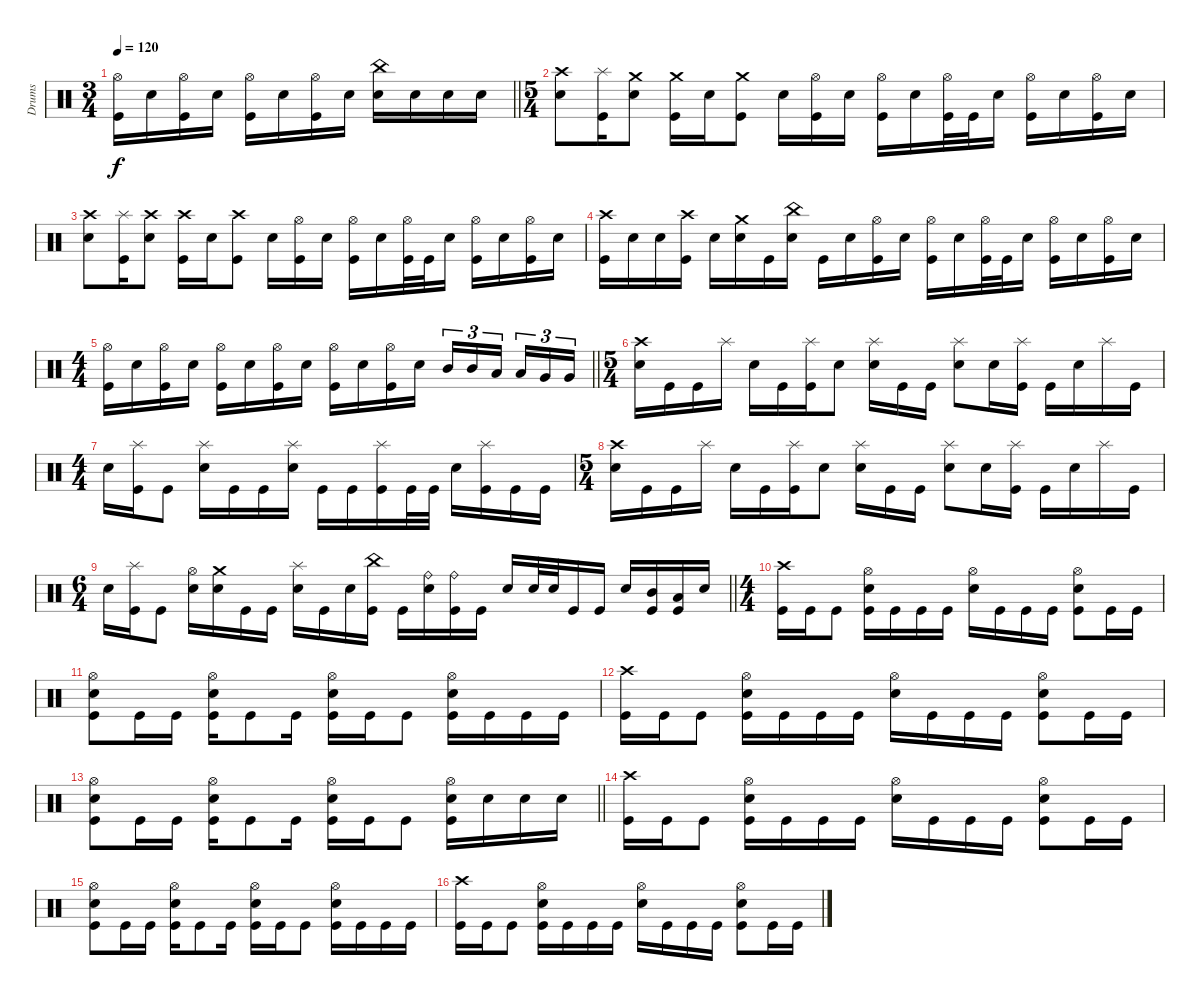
\track ("Drums" "Drums") {instrument percussion}
\staff
\articulation defaults
\ts (3 4)
\tempo 120
\clef neutral
\barLineRight lightlight
\ks c
("Hi-Hat (open)" "Kick (hit)").16{dy f} "Electric Snare (hit)".16 ("Hi-Hat (open)" "Kick (hit)").16 "Electric Snare (hit)".16 ("Hi-Hat (open)" "Kick (hit)").16 "Electric Snare (hit)".16 ("Hi-Hat (open)" "Kick (hit)").16 "Electric Snare (hit)".16 ("China (hit)" "Electric Snare (hit)").16 "Electric Snare (hit)".16 "Electric Snare (hit)".16 "Electric Snare (hit)".16 |
\ts (5 4)
("Crash high (hit)" "Electric Snare (hit)").8 ("Splash (hit)" "Kick (hit)").16 ("Crash medium (hit)" "Electric Snare (hit)").8 ("Crash medium (hit)" "Kick (hit)").16 "Electric Snare (hit)".16 ("Crash medium (hit)" "Kick (hit)").8 "Electric Snare (hit)".16 ("Hi-Hat (open)" "Kick (hit)").16 "Electric Snare (hit)".16 ("Hi-Hat (open)" "Kick (hit)").16 "Electric Snare (hit)".16 ("Hi-Hat (open)" "Kick (hit)").32 "Kick (hit)".32 "Electric Snare (hit)".16 ("Hi-Hat (open)" "Kick (hit)").16 "Electric Snare (hit)".16 ("Hi-Hat (open)" "Kick (hit)").16 "Electric Snare (hit)".16 |
("Crash high (hit)" "Electric Snare (hit)").8 ("Splash (hit)" "Kick (hit)").16 ("Crash high (hit)" "Electric Snare (hit)").8 ("Crash high (hit)" "Kick (hit)").16 "Electric Snare (hit)".16 ("Crash high (hit)" "Kick (hit)").8 "Electric Snare (hit)".16 ("Hi-Hat (open)" "Kick (hit)").16 "Electric Snare (hit)".16 ("Hi-Hat (open)" "Kick (hit)").16 "Electric Snare (hit)".16 ("Hi-Hat (open)" "Kick (hit)").32 "Kick (hit)".32 "Electric Snare (hit)".16 ("Hi-Hat (open)" "Kick (hit)").16 "Electric Snare (hit)".16 ("Hi-Hat (open)" "Kick (hit)").16 "Electric Snare (hit)".16 |
("Crash high (hit)" "Kick (hit)").16 "Electric Snare (hit)".16 "Electric Snare (hit)".16 ("Crash high (hit)" "Kick (hit)").16 "Electric Snare (hit)".16 ("Crash medium (hit)" "Electric Snare (hit)").16 "Kick (hit)".16 ("China (hit)" "Electric Snare (hit)").16 "Kick (hit)".16 "Electric Snare (hit)".16 ("Hi-Hat (open)" "Kick (hit)").16 "Electric Snare (hit)".16 ("Hi-Hat (open)" "Kick (hit)").16 "Electric Snare (hit)".16 ("Hi-Hat (open)" "Kick (hit)").32 "Kick (hit)".32 "Electric Snare (hit)".16 ("Hi-Hat (open)" "Kick (hit)").16 "Electric Snare (hit)".16 ("Hi-Hat (open)" "Kick (hit)").16 "Electric Snare (hit)".16 |
\ts (4 4)
\barLineRight lightlight
("Hi-Hat (open)" "Kick (hit)").16 "Electric Snare (hit)".16 ("Hi-Hat (open)" "Kick (hit)").16 "Electric Snare (hit)".16 ("Hi-Hat (open)" "Kick (hit)").16 "Electric Snare (hit)".16 ("Hi-Hat (open)" "Kick (hit)").16 "Electric Snare (hit)".16 ("Hi-Hat (open)" "Kick (hit)").16 "Electric Snare (hit)".16 ("Hi-Hat (open)" "Kick (hit)").16 "Electric Snare (hit)".16 "Mid Tom (hit)".16{tu (3 2)} "Mid Tom (hit)".16{tu (3 2)} "Low Tom (hit)".16{tu (3 2) beam splitsecondary} "Low Tom (hit)".16{tu (3 2)} "Very Low Tom (hit)".16{tu (3 2)} "Very Low Tom (hit)".16{tu (3 2)} |
\ts (5 4)
\section ("" "")
("Crash high (hit)" "Electric Snare (hit)").16 "Kick (hit)".16 "Kick (hit)".16 "Splash (hit)".16 "Electric Snare (hit)".16 "Kick (hit)".16 ("Splash (hit)" "Kick (hit)").16 "Electric Snare (hit)".8 ("Splash (hit)" "Electric Snare (hit)").16 "Kick (hit)".16 "Kick (hit)".16 ("Splash (hit)" "Electric Snare (hit)").8 "Electric Snare (hit)".16 ("Splash (hit)" "Kick (hit)").16 "Kick (hit)".16 "Electric Snare (hit)".16 "Splash (hit)".16 "Kick (hit)".16 |
\ts (4 4)
"Electric Snare (hit)".16 ("Splash (hit)" "Kick (hit)").16 "Kick (hit)".8 ("Splash (hit)" "Electric Snare (hit)").16 "Kick (hit)".16 "Kick (hit)".16 ("Splash (hit)" "Electric Snare (hit)").16 "Kick (hit)".16 "Kick (hit)".16 ("Splash (hit)" "Kick (hit)").16 "Kick (hit)".32 "Kick (hit)".32 "Electric Snare (hit)".16 ("Splash (hit)" "Kick (hit)").16 "Kick (hit)".16 "Kick (hit)".16 |
\ts (5 4)
("Crash high (hit)" "Electric Snare (hit)").16 "Kick (hit)".16 "Kick (hit)".16 "Splash (hit)".16 "Electric Snare (hit)".16 "Kick (hit)".16 ("Splash (hit)" "Kick (hit)").16 "Electric Snare (hit)".8 ("Splash (hit)" "Electric Snare (hit)").16 "Kick (hit)".16 "Kick (hit)".16 ("Splash (hit)" "Electric Snare (hit)").8 "Electric Snare (hit)".16 ("Splash (hit)" "Kick (hit)").16 "Kick (hit)".16 "Electric Snare (hit)".16 "Splash (hit)".16 "Kick (hit)".16 |
\ts (6 4)
\barLineRight lightlight "Electric Snare (hit)".16
("Splash (hit)" "Kick (hit)").16 "Kick (hit)".8 ("Hi-Hat (open)" "Electric Snare (hit)").16 ("Crash medium (hit)" "Electric Snare (hit)").16 "Kick (hit)".16 "Kick (hit)".16 ("Splash (hit)" "Electric Snare (hit)").16 "Kick (hit)".16 "Electric Snare (hit)".16 ("China (hit)" "Kick (hit)").16 "Kick (hit)".16 ("Ride (bell)" "Electric Snare (hit)").16 ("Ride (bell)" "Kick (hit)").16 "Kick (hit)".16 "Electric Snare (hit)".16 "Electric Snare (hit)".32 "Electric Snare (hit)".32 "Kick (hit)".16 "Kick (hit)".16 "Electric Snare (hit)".16 ("Mid Tom (hit)" "Kick (hit)").16 ("Low Tom (hit)" "Kick (hit)").16 "Electric Snare (hit)".16 |
\ts (4 4)
\section ("" "")
("Crash high (hit)" "Kick (hit)").16 "Kick (hit)".16 "Kick (hit)".8 ("Hi-Hat (open)" "Electric Snare (hit)" "Kick (hit)").16 "Kick (hit)".16 "Kick (hit)".16 "Kick (hit)".16 ("Hi-Hat (open)" "Electric Snare (hit)").16 "Kick (hit)".16 "Kick (hit)".16 "Kick (hit)".16 ("Hi-Hat (open)" "Electric Snare (hit)" "Kick (hit)").8 "Kick (hit)".16 "Kick (hit)".16 |
("Hi-Hat (open)" "Electric Snare (hit)" "Kick (hit)").8 "Kick (hit)".16 "Kick (hit)".16 ("Hi-Hat (open)" "Electric Snare (hit)" "Kick (hit)").16 "Kick (hit)".8 "Kick (hit)".16 ("Hi-Hat (open)" "Electric Snare (hit)" "Kick (hit)").16 "Kick (hit)".16 "Kick (hit)".8 ("Hi-Hat (open)" "Electric Snare (hit)" "Kick (hit)").16 "Kick (hit)".16 "Kick (hit)".16 "Kick (hit)".16 |
("Crash high (hit)" "Kick (hit)").16 "Kick (hit)".16 "Kick (hit)".8 ("Hi-Hat (open)" "Electric Snare (hit)" "Kick (hit)").16 "Kick (hit)".16 "Kick (hit)".16 "Kick (hit)".16 ("Hi-Hat (open)" "Electric Snare (hit)").16 "Kick (hit)".16 "Kick (hit)".16 "Kick (hit)".16 ("Hi-Hat (open)" "Electric Snare (hit)" "Kick (hit)").8 "Kick (hit)".16 "Kick (hit)".16 |
\barLineRight lightlight
("Hi-Hat (open)" "Electric Snare (hit)" "Kick (hit)").8 "Kick (hit)".16 "Kick (hit)".16 ("Hi-Hat (open)" "Electric Snare (hit)" "Kick (hit)").16 "Kick (hit)".8 "Kick (hit)".16 ("Hi-Hat (open)" "Electric Snare (hit)" "Kick (hit)").16 "Kick (hit)".16 "Kick (hit)".8 ("Hi-Hat (open)" "Electric Snare (hit)" "Kick (hit)").16 "Electric Snare (hit)".16 "Electric Snare (hit)".16 "Electric Snare (hit)".16 |
("Crash high (hit)" "Kick (hit)").16 "Kick (hit)".16 "Kick (hit)".8 ("Hi-Hat (open)" "Electric Snare (hit)" "Kick (hit)").16 "Kick (hit)".16 "Kick (hit)".16 "Kick (hit)".16 ("Hi-Hat (open)" "Electric Snare (hit)").16 "Kick (hit)".16 "Kick (hit)".16 "Kick (hit)".16 ("Hi-Hat (open)" "Electric Snare (hit)" "Kick (hit)").8 "Kick (hit)".16 "Kick (hit)".16 |
("Hi-Hat (open)" "Electric Snare (hit)" "Kick (hit)").8 "Kick (hit)".16 "Kick (hit)".16 ("Hi-Hat (open)" "Electric Snare (hit)" "Kick (hit)").16 "Kick (hit)".8 "Kick (hit)".16 ("Hi-Hat (open)" "Electric Snare (hit)" "Kick (hit)").16 "Kick (hit)".16 "Kick (hit)".8 ("Hi-Hat (open)" "Electric Snare (hit)" "Kick (hit)").16 "Kick (hit)".16 "Kick (hit)".16 "Kick (hit)".16 |
("Crash high (hit)" "Kick (hit)").16 "Kick (hit)".16 "Kick (hit)".8 ("Hi-Hat (open)" "Electric Snare (hit)" "Kick (hit)").16 "Kick (hit)".16 "Kick (hit)".16 "Kick (hit)".16 ("Hi-Hat (open)" "Electric Snare (hit)").16 "Kick (hit)".16 "Kick (hit)".16 "Kick (hit)".16 ("Hi-Hat (open)" "Electric Snare (hit)" "Kick (hit)").8 "Kick (hit)".16 "Kick (hit)".16
